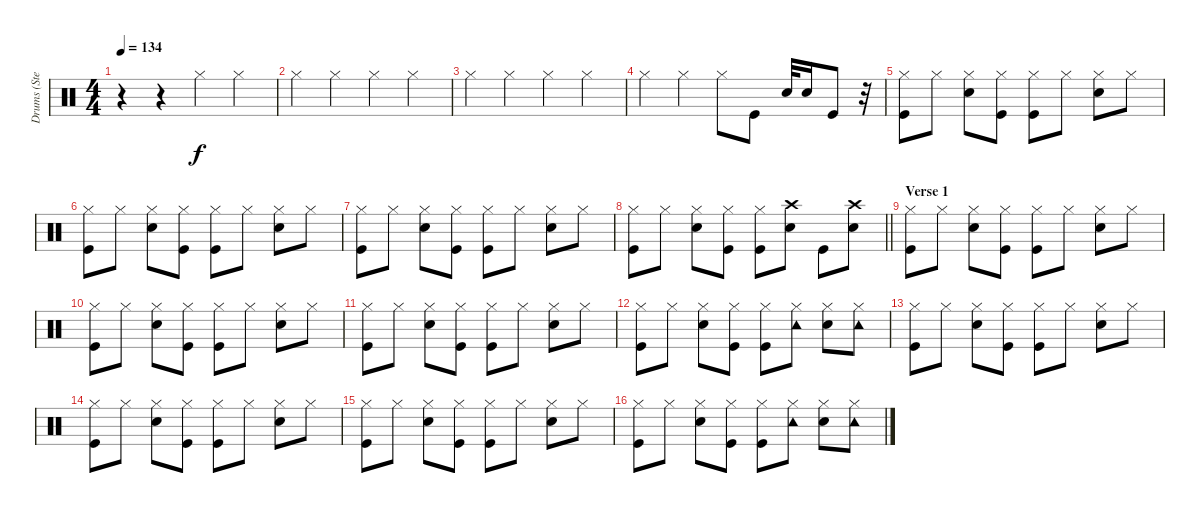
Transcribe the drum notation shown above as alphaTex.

\track ("Drums (Steven Adler)" "Drums (Ste") {instrument percussion}
\staff {score}
\articulation defaults
\ts (4 4)
\tempo 134
\clef neutral
\ks c
r.4{dy f} r.4 "Hi-Hat (closed)".4 "Hi-Hat (closed)".4 |
"Hi-Hat (closed)".4 "Hi-Hat (closed)".4 "Hi-Hat (closed)".4 "Hi-Hat (closed)".4 |
"Hi-Hat (closed)".4 "Hi-Hat (closed)".4 "Hi-Hat (closed)".4 "Hi-Hat (closed)".4 |
"Hi-Hat (closed)".4 "Hi-Hat (closed)".4 "Hi-Hat (closed)".8 "Kick (hit)".8 "Snare (hit) 2".32 "Snare (hit) 2".16 "Kick (hit)".8 r.32 |
("Hi-Hat (closed)" "Kick (hit)").8 "Hi-Hat (closed)".8 ("Hi-Hat (closed)" "Snare (hit) 2").8 ("Hi-Hat (closed)" "Kick (hit)").8 ("Hi-Hat (closed)" "Kick (hit)").8 "Hi-Hat (closed)".8 ("Hi-Hat (closed)" "Snare (hit) 2").8 "Hi-Hat (closed)".8 |
("Hi-Hat (closed)" "Kick (hit)").8 "Hi-Hat (closed)".8 ("Hi-Hat (closed)" "Snare (hit) 2").8 ("Hi-Hat (closed)" "Kick (hit)").8 ("Hi-Hat (closed)" "Kick (hit)").8 "Hi-Hat (closed)".8 ("Hi-Hat (closed)" "Snare (hit) 2").8 "Hi-Hat (closed)".8 |
("Hi-Hat (closed)" "Kick (hit)").8 "Hi-Hat (closed)".8 ("Hi-Hat (closed)" "Snare (hit) 2").8 ("Hi-Hat (closed)" "Kick (hit)").8 ("Hi-Hat (closed)" "Kick (hit)").8 "Hi-Hat (closed)".8 ("Hi-Hat (closed)" "Snare (hit) 2").8 "Hi-Hat (closed)".8 |
\barLineRight lightlight
("Hi-Hat (closed)" "Kick (hit)").8 "Hi-Hat (closed)".8 ("Hi-Hat (closed)" "Snare (hit) 2").8 ("Hi-Hat (closed)" "Kick (hit)").8 ("Hi-Hat (closed)" "Kick (hit)").8 ("Crash high (hit)" "Snare (hit) 2").8 "Kick (hit)".8 ("Crash high (hit)" "Snare (hit) 2").8 |
\section ("" "Verse 1")
("Hi-Hat (closed)" "Kick (hit)").8 "Hi-Hat (closed)".8 ("Hi-Hat (closed)" "Snare (hit) 2").8 ("Hi-Hat (closed)" "Kick (hit)").8 ("Hi-Hat (closed)" "Kick (hit)").8 "Hi-Hat (closed)".8 ("Hi-Hat (closed)" "Snare (hit) 2").8 "Hi-Hat (closed)".8 |
("Hi-Hat (closed)" "Kick (hit)").8 "Hi-Hat (closed)".8 ("Hi-Hat (closed)" "Snare (hit) 2").8 ("Hi-Hat (closed)" "Kick (hit)").8 ("Hi-Hat (closed)" "Kick (hit)").8 "Hi-Hat (closed)".8 ("Hi-Hat (closed)" "Snare (hit) 2").8 "Hi-Hat (closed)".8 |
("Hi-Hat (closed)" "Kick (hit)").8 "Hi-Hat (closed)".8 ("Hi-Hat (closed)" "Snare (hit) 2").8 ("Hi-Hat (closed)" "Kick (hit)").8 ("Hi-Hat (closed)" "Kick (hit)").8 "Hi-Hat (closed)".8 ("Hi-Hat (closed)" "Snare (hit) 2").8 "Hi-Hat (closed)".8 |
("Hi-Hat (closed)" "Kick (hit)").8 "Hi-Hat (closed)".8 ("Hi-Hat (closed)" "Snare (hit) 2").8 ("Hi-Hat (closed)" "Kick (hit)").8 ("Hi-Hat (closed)" "Kick (hit)").8 ("Hi-Hat (closed)" "Tambourine (hit)").8 ("Hi-Hat (closed)" "Snare (hit) 2").8 ("Hi-Hat (closed)" "Tambourine (hit)").8 |
("Hi-Hat (closed)" "Kick (hit)").8 "Hi-Hat (closed)".8 ("Hi-Hat (closed)" "Snare (hit) 2").8 ("Hi-Hat (closed)" "Kick (hit)").8 ("Hi-Hat (closed)" "Kick (hit)").8 "Hi-Hat (closed)".8 ("Hi-Hat (closed)" "Snare (hit) 2").8 "Hi-Hat (closed)".8 |
("Hi-Hat (closed)" "Kick (hit)").8 "Hi-Hat (closed)".8 ("Hi-Hat (closed)" "Snare (hit) 2").8 ("Hi-Hat (closed)" "Kick (hit)").8 ("Hi-Hat (closed)" "Kick (hit)").8 "Hi-Hat (closed)".8 ("Hi-Hat (closed)" "Snare (hit) 2").8 "Hi-Hat (closed)".8 |
("Hi-Hat (closed)" "Kick (hit)").8 "Hi-Hat (closed)".8 ("Hi-Hat (closed)" "Snare (hit) 2").8 ("Hi-Hat (closed)" "Kick (hit)").8 ("Hi-Hat (closed)" "Kick (hit)").8 "Hi-Hat (closed)".8 ("Hi-Hat (closed)" "Snare (hit) 2").8 "Hi-Hat (closed)".8 |
("Hi-Hat (closed)" "Kick (hit)").8 "Hi-Hat (closed)".8 ("Hi-Hat (closed)" "Snare (hit) 2").8 ("Hi-Hat (closed)" "Kick (hit)").8 ("Hi-Hat (closed)" "Kick (hit)").8 ("Hi-Hat (closed)" "Tambourine (hit)").8 ("Hi-Hat (closed)" "Snare (hit) 2").8 ("Hi-Hat (closed)" "Tambourine (hit)").8
